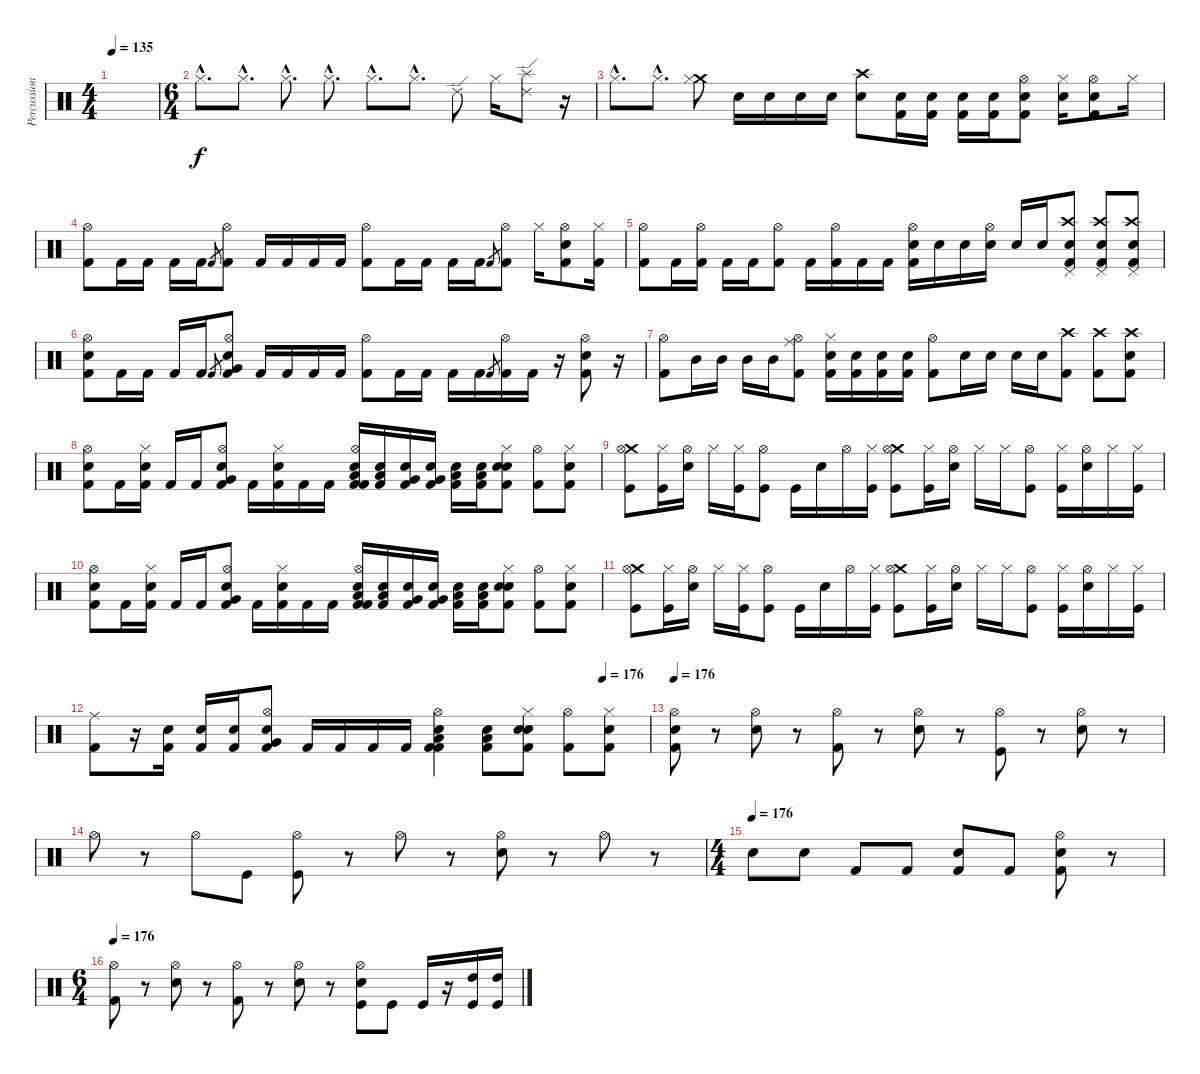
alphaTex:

\track ("Percussion" "Percussion") {instrument percussion}
\staff {score}
\articulation defaults
\ts (4 4)
\tempo 135
\clef neutral
\ks c
|
\ts (6 4)
"Hi-Hat (closed)"{hac}.8{d} "Hi-Hat (closed)"{hac}.8{d} "Hi-Hat (closed)"{hac}.8{d} "Hi-Hat (closed)"{hac}.8{d} "Hi-Hat (closed)"{hac}.8{d} "Hi-Hat (closed)"{hac}.8{d} "Ride (edge) 2".8 "Hi-Hat (closed)".16 ("Splash (hit)" "Ride (edge) 2").8 r.16 |
"Hi-Hat (closed)"{hac}.8{d} "Hi-Hat (closed)"{hac}.8{d} ("Crash medium (hit)" "Hi-Hat (closed)").8 "Snare (hit) 2".16 "Snare (hit) 2".16 "Snare (hit) 2".16 "Snare (hit) 2".16 ("Crash high (hit)" "Snare (hit) 2").8 ("Kick (hit) 2" "Snare (hit) 2").16 ("Kick (hit) 2" "Snare (hit) 2").16 ("Kick (hit) 2" "Snare (hit) 2").16 ("Kick (hit) 2" "Snare (hit) 2").16 ("Hi-Hat (open)" "Kick (hit) 2" "Snare (hit) 2").8 ("Hi-Hat (closed)" "Snare (hit) 2").16 ("Hi-Hat (open)" "Kick (hit) 2" "Snare (hit) 2").8 "Hi-Hat (closed)".16 |
("Hi-Hat (open)" "Kick (hit) 2").8 "Kick (hit) 2".16 "Kick (hit) 2".16 "Kick (hit) 2".16 "Kick (hit) 2".16 "Kick (hit) 2".8{gr} ("Hi-Hat (open)" "Kick (hit) 2").8 "Kick (hit) 2".16 "Kick (hit) 2".16 "Kick (hit) 2".16 "Kick (hit) 2".16 ("Hi-Hat (open)" "Kick (hit) 2").8 "Kick (hit) 2".16 "Kick (hit) 2".16 "Kick (hit) 2".16 "Kick (hit) 2".16 "Kick (hit) 2".8{gr} ("Hi-Hat (open)" "Kick (hit) 2").8 "Hi-Hat (closed)".16 ("Hi-Hat (open)" "Snare (hit) 2" "Kick (hit) 2").8 ("Hi-Hat (closed)" "Kick (hit) 2").16 |
("Hi-Hat (open)" "Kick (hit) 2").8 "Kick (hit) 2".16 ("Hi-Hat (open)" "Kick (hit) 2").16 "Kick (hit) 2".16 "Kick (hit) 2".16 ("Hi-Hat (open)" "Kick (hit) 2").8 "Kick (hit) 2".16 ("Hi-Hat (open)" "Kick (hit) 2").16 "Kick (hit) 2".16 "Kick (hit) 2".16 ("Hi-Hat (open)" "Snare (hit) 2" "Kick (hit) 2").16 "Snare (hit) 2".16 "Snare (hit) 2".16 ("Hi-Hat (open)" "Snare (hit) 2").16 "Snare (hit) 2".16 "Snare (hit) 2".16 ("Crash high (hit)" "Pedal Hi-Hat (hit)" "Snare (hit) 2" "Kick (hit) 2").8 ("Crash high (hit)" "Pedal Hi-Hat (hit)" "Snare (hit) 2" "Kick (hit) 2").8 ("Crash high (hit)" "Pedal Hi-Hat (hit)" "Snare (hit) 2" "Kick (hit) 2").8 |
("Hi-Hat (open)" "Snare (hit) 2" "Kick (hit) 2").8 "Kick (hit) 2".16 "Kick (hit) 2".16 "Kick (hit) 2".16 "Kick (hit) 2".16 "Kick (hit) 2".8{gr} ("Very Low Tom (hit)" "Hi-Hat (open)" "Kick (hit) 2" "Snare (hit) 2").8 "Kick (hit) 2".16 "Kick (hit) 2".16 "Kick (hit) 2".16 "Kick (hit) 2".16 ("Hi-Hat (open)" "Kick (hit) 2").8 "Kick (hit) 2".16 "Kick (hit) 2".16 "Kick (hit) 2".16 "Kick (hit) 2".16 "Kick (hit) 2".8{gr} ("Hi-Hat (open)" "Kick (hit) 2").16 "Kick (hit) 2".16 r.16 ("Hi-Hat (open)" "Snare (hit) 2" "Kick (hit) 2").8 r.16 |
("Hi-Hat (open)" "Kick (hit) 2").8 "Mid Tom (hit)".16 "Mid Tom (hit)".16 "Mid Tom (hit)".16 "Mid Tom (hit)".16 ("Hi-Hat (open)" "Ride (middle)" "Kick (hit) 2").8 ("Hi-Hat (closed)" "Electric Snare (hit)" "Kick (hit) 2").16 ("Electric Snare (hit)" "Kick (hit) 2").16 ("Electric Snare (hit)" "Kick (hit) 2").16 ("Electric Snare (hit)" "Kick (hit) 2").16 ("Hi-Hat (open)" "Kick (hit) 2").8 "Snare (hit) 2".16 "Snare (hit) 2".16 "Snare (hit) 2".16 "Snare (hit) 2".16 ("Crash high (hit)" "Kick (hit) 2").8 ("Crash high (hit)" "Kick (hit) 2").8 ("Crash high (hit)" "Snare (hit) 2" "Kick (hit) 2").8 |
("Hi-Hat (open)" "Snare (hit) 2" "Kick (hit) 2").8 "Kick (hit) 2".16 ("Hi-Hat (closed)" "Snare (hit) 2" "Kick (hit) 2").16 "Kick (hit) 2".16 "Kick (hit) 2".16 ("Very Low Tom (hit)" "Hi-Hat (open)" "Kick (hit) 2" "Snare (hit) 2").8 "Kick (hit) 2".16 ("Hi-Hat (closed)" "Snare (hit) 2" "Kick (hit) 2").16 "Kick (hit) 2".16 "Kick (hit) 2".16 ("Snare (hit) 2" "Low Tom (hit)" "Kick (hit) 2" "Hi-Hat (open)" "Kick (hit) 2").16 ("Snare (hit) 2" "Low Tom (hit)" "Kick (hit) 2").16 ("Snare (hit) 2" "Very Low Tom (hit)" "Kick (hit) 2").16 ("Snare (hit) 2" "Very Low Tom (hit)" "Kick (hit) 2").16 ("Snare (hit) 2" "Low Floor Tom (hit)" "Kick (hit) 2").16 ("Snare (hit) 2" "Low Floor Tom (hit)" "Kick (hit) 2").16 ("Snare (hit) 2" "Snare (hit) 2" "Kick (hit) 2" "Hi-Hat (closed)").8 ("Hi-Hat (open)" "Kick (hit) 2").8 ("Hi-Hat (closed)" "Snare (hit) 2" "Kick (hit) 2").8 |
("Crash medium (hit)" "Hi-Hat (open)" "Kick (hit)").8 ("Hi-Hat (closed)" "Kick (hit)").16 ("Hi-Hat (open)" "Snare (hit) 2").16 "Hi-Hat (closed)".16 ("Hi-Hat (closed)" "Kick (hit)").16 ("Hi-Hat (open)" "Kick (hit)").8 "Kick (hit)".16 "Snare (hit) 2".16 "Hi-Hat (open)".16 ("Hi-Hat (closed)" "Kick (hit)").16 ("Crash medium (hit)" "Hi-Hat (open)" "Kick (hit)").8 ("Hi-Hat (closed)" "Kick (hit)").16 ("Hi-Hat (open)" "Snare (hit) 2").16 "Hi-Hat (closed)".16 "Hi-Hat (closed)".16 ("Hi-Hat (open)" "Kick (hit)").8 ("Hi-Hat (closed)" "Kick (hit)").16 ("Hi-Hat (open)" "Snare (hit) 2").16 "Hi-Hat (closed)".16 ("Hi-Hat (closed)" "Kick (hit)").16 |
("Hi-Hat (open)" "Snare (hit) 2" "Kick (hit) 2").8 "Kick (hit) 2".16 ("Hi-Hat (closed)" "Snare (hit) 2" "Kick (hit) 2").16 "Kick (hit) 2".16 "Kick (hit) 2".16 ("Very Low Tom (hit)" "Hi-Hat (open)" "Kick (hit) 2" "Snare (hit) 2").8 "Kick (hit) 2".16 ("Hi-Hat (closed)" "Snare (hit) 2" "Kick (hit) 2").16 "Kick (hit) 2".16 "Kick (hit) 2".16 ("Snare (hit) 2" "Low Tom (hit)" "Kick (hit) 2" "Hi-Hat (open)" "Kick (hit) 2").16 ("Snare (hit) 2" "Low Tom (hit)" "Kick (hit) 2").16 ("Snare (hit) 2" "Very Low Tom (hit)" "Kick (hit) 2").16 ("Snare (hit) 2" "Very Low Tom (hit)" "Kick (hit) 2").16 ("Snare (hit) 2" "Low Floor Tom (hit)" "Kick (hit) 2").16 ("Snare (hit) 2" "Low Floor Tom (hit)" "Kick (hit) 2").16 ("Snare (hit) 2" "Snare (hit) 2" "Kick (hit) 2" "Hi-Hat (closed)").8 ("Hi-Hat (open)" "Kick (hit) 2").8 ("Hi-Hat (closed)" "Snare (hit) 2" "Kick (hit) 2").8 |
("Crash medium (hit)" "Hi-Hat (open)" "Kick (hit)").8 ("Hi-Hat (closed)" "Kick (hit)").16 ("Hi-Hat (open)" "Snare (hit) 2").16 "Hi-Hat (closed)".16 ("Hi-Hat (closed)" "Kick (hit)").16 ("Hi-Hat (open)" "Kick (hit)").8 "Kick (hit)".16 "Snare (hit) 2".16 "Hi-Hat (open)".16 ("Hi-Hat (closed)" "Kick (hit)").16 ("Crash medium (hit)" "Hi-Hat (open)" "Kick (hit)").8 ("Hi-Hat (closed)" "Kick (hit)").16 ("Hi-Hat (open)" "Snare (hit) 2").16 "Hi-Hat (closed)".16 "Hi-Hat (closed)".16 ("Hi-Hat (open)" "Kick (hit)").8 ("Hi-Hat (closed)" "Kick (hit)").16 ("Hi-Hat (open)" "Snare (hit) 2").16 "Hi-Hat (closed)".16 ("Hi-Hat (closed)" "Kick (hit)").16 |
\tempo (176 0.9166666666666666)
("Ride (middle)" "Kick (hit) 2").8 r.16 ("Electric Snare (hit)" "Kick (hit) 2").16 ("Electric Snare (hit)" "Kick (hit) 2").16 ("Electric Snare (hit)" "Kick (hit) 2").16 ("Very Low Tom (hit)" "Hi-Hat (open)" "Kick (hit) 2" "Snare (hit) 2").8 "Kick (hit) 2".16 "Kick (hit) 2".16 "Kick (hit) 2".16 "Kick (hit) 2".16 ("Snare (hit) 2" "Low Tom (hit)" "Kick (hit) 2" "Hi-Hat (open)" "Kick (hit) 2").4 ("Snare (hit) 2" "Low Floor Tom (hit)" "Kick (hit) 2").8 ("Snare (hit) 2" "Snare (hit) 2" "Kick (hit) 2" "Hi-Hat (closed)").8 ("Hi-Hat (open)" "Kick (hit) 2").8 ("Hi-Hat (closed)" "Snare (hit) 2" "Kick (hit) 2").8 |
\tempo 176
("Hi-Hat (open)" "Snare (hit) 2" "Kick (hit) 2").8 r.8 ("Hi-Hat (open)" "Snare (hit) 2").8 r.8 ("Hi-Hat (open)" "Kick (hit) 2").8 r.8 ("Hi-Hat (open)" "Snare (hit) 2").8 r.8 ("Hi-Hat (open)" "Kick (hit)").8 r.8 ("Hi-Hat (open)" "Snare (hit) 2").8 r.8 |
"Hi-Hat (open)".8 r.8 "Hi-Hat (open)".8 "Kick (hit)".8 ("Hi-Hat (open)" "Kick (hit)").8 r.8 "Hi-Hat (open)".8 r.8 ("Hi-Hat (open)" "Snare (hit) 2").8 r.8 "Hi-Hat (open)".8 r.8 |
\ts (4 4)
\tempo (176)
"Electric Snare (hit)".8 "Snare (hit) 2".8 "Kick (hit) 2".8 "Kick (hit) 2".8 ("Snare (hit) 2" "Kick (hit) 2").8 "Kick (hit) 2".8 ("Hi-Hat (open)" "Snare (hit) 2" "Kick (hit) 2").8 r.8 |
\ts (6 4)
\tempo 176
("Hi-Hat (open)" "Kick (hit) 2").8 r.8 ("Hi-Hat (open)" "Snare (hit) 2").8 r.8 ("Hi-Hat (open)" "Kick (hit) 2").8 r.8 ("Hi-Hat (open)" "Snare (hit) 2").8 r.8 ("Hi-Hat (open)" "Electric Snare (hit)" "Kick (hit)").8 "Kick (hit)".8 "Kick (hit)".16 r.16 ("High Tom (hit)" "Kick (hit)").16 ("High Tom (hit)" "Kick (hit)").16
